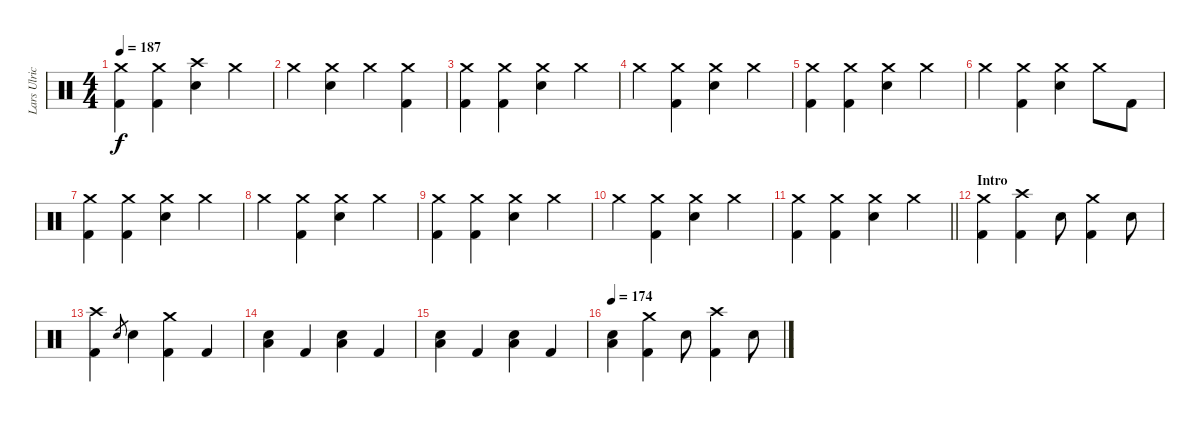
\track ("Lars Ulrich" "Lars Ulric") {instrument percussion}
\staff {score}
\articulation defaults
\ts (4 4)
\tempo 187
\clef neutral
\ks c
("Crash medium (hit)" "Kick (hit) 2").4{dy f} ("Crash medium (hit)" "Kick (hit) 2").4 ("Crash high (hit)" "Snare (hit) 2").4 "Crash medium (hit)".4 |
"Crash medium (hit)".4 ("Crash medium (hit)" "Snare (hit) 2").4 "Crash medium (hit)".4 ("Crash medium (hit)" "Kick (hit) 2").4 |
("Crash medium (hit)" "Kick (hit) 2").4 ("Crash medium (hit)" "Kick (hit) 2").4 ("Crash medium (hit)" "Snare (hit) 2").4 "Crash medium (hit)".4 |
"Crash medium (hit)".4 ("Crash medium (hit)" "Kick (hit) 2").4 ("Crash medium (hit)" "Snare (hit) 2").4 "Crash medium (hit)".4 |
("Crash medium (hit)" "Kick (hit) 2").4 ("Crash medium (hit)" "Kick (hit) 2").4 ("Crash medium (hit)" "Snare (hit) 2").4 "Crash medium (hit)".4 |
"Crash medium (hit)".4 ("Crash medium (hit)" "Kick (hit) 2").4 ("Crash medium (hit)" "Snare (hit) 2").4 "Crash medium (hit)".8 "Kick (hit) 2".8 |
("Crash medium (hit)" "Kick (hit) 2").4 ("Crash medium (hit)" "Kick (hit) 2").4 ("Crash medium (hit)" "Snare (hit) 2").4 "Crash medium (hit)".4 |
"Crash medium (hit)".4 ("Crash medium (hit)" "Kick (hit) 2").4 ("Crash medium (hit)" "Snare (hit) 2").4 "Crash medium (hit)".4 |
("Crash medium (hit)" "Kick (hit) 2").4 ("Crash medium (hit)" "Kick (hit) 2").4 ("Crash medium (hit)" "Snare (hit) 2").4 "Crash medium (hit)".4 |
"Crash medium (hit)".4 ("Crash medium (hit)" "Kick (hit) 2").4 ("Crash medium (hit)" "Snare (hit) 2").4 "Crash medium (hit)".4 |
\barLineRight lightlight
("Crash medium (hit)" "Kick (hit) 2").4 ("Crash medium (hit)" "Kick (hit) 2").4 ("Crash medium (hit)" "Snare (hit) 2").4 "Crash medium (hit)".4 |
\section ("" "Intro")
("Crash medium (hit)" "Kick (hit) 2").4 ("Crash high (hit)" "Kick (hit) 2").4 "Snare (hit) 2".8 ("Crash medium (hit)" "Kick (hit) 2").4 "Snare (hit) 2".8 |
("Crash high (hit)" "Kick (hit) 2").4 "Snare (hit) 2".8{gr} "Snare (hit) 2".4 ("Crash medium (hit)" "Kick (hit) 2").4 "Kick (hit) 2".4 |
("Snare (hit) 2" "Low Floor Tom (hit)").4 "Kick (hit) 2".4 ("Snare (hit) 2" "Low Floor Tom (hit)").4 "Kick (hit) 2".4 |
("Snare (hit) 2" "Low Floor Tom (hit)").4 "Kick (hit) 2".4 ("Snare (hit) 2" "Low Floor Tom (hit)").4 "Kick (hit) 2".4 |
\tempo 174
("Snare (hit) 2" "Low Floor Tom (hit)").4 ("Crash medium (hit)" "Kick (hit) 2").4 "Snare (hit) 2".8 ("Crash high (hit)" "Kick (hit) 2").4 "Snare (hit) 2".8
